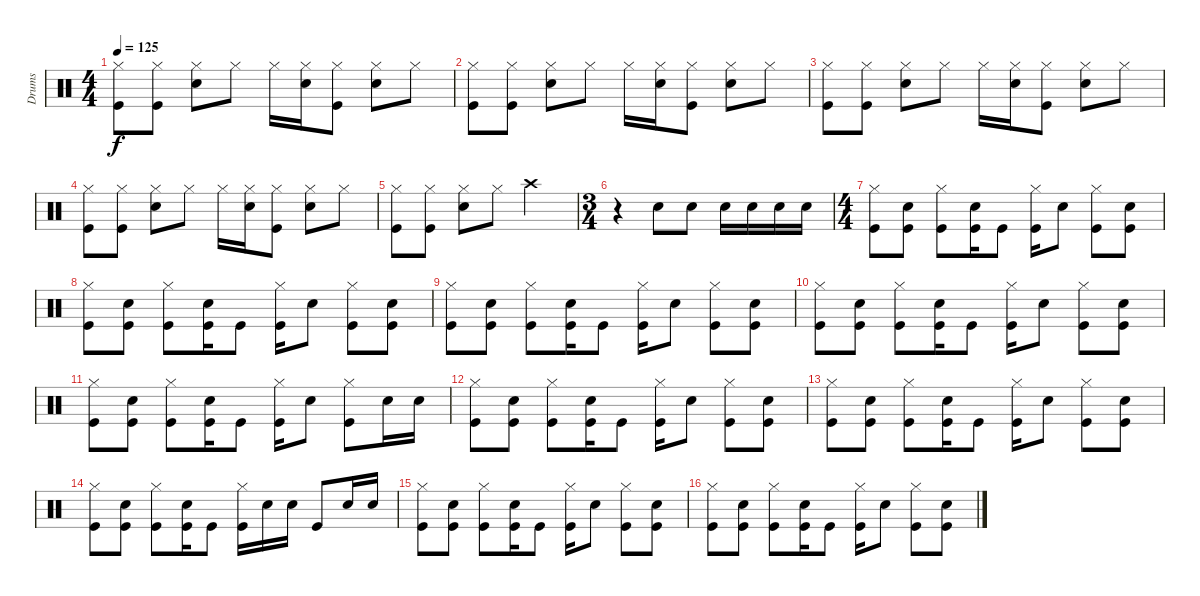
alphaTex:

\track ("Drums" "Drums") {instrument percussion}
\staff {score}
\articulation defaults
\ts (4 4)
\tempo 125
\clef neutral
\ks c
("Hi-Hat (closed)" "Kick (hit)").8{dy f} ("Hi-Hat (closed)" "Kick (hit)").8 ("Hi-Hat (closed)" "Snare (hit) 2").8 "Hi-Hat (closed)".8 "Hi-Hat (closed)".16 ("Hi-Hat (closed)" "Snare (hit) 2").16 ("Hi-Hat (closed)" "Kick (hit)").8 ("Hi-Hat (closed)" "Snare (hit) 2").8 "Hi-Hat (closed)".8 |
("Hi-Hat (closed)" "Kick (hit)").8 ("Hi-Hat (closed)" "Kick (hit)").8 ("Hi-Hat (closed)" "Snare (hit) 2").8 "Hi-Hat (closed)".8 "Hi-Hat (closed)".16 ("Hi-Hat (closed)" "Snare (hit) 2").16 ("Hi-Hat (closed)" "Kick (hit)").8 ("Hi-Hat (closed)" "Snare (hit) 2").8 "Hi-Hat (closed)".8 |
("Hi-Hat (closed)" "Kick (hit)").8 ("Hi-Hat (closed)" "Kick (hit)").8 ("Hi-Hat (closed)" "Snare (hit) 2").8 "Hi-Hat (closed)".8 "Hi-Hat (closed)".16 ("Hi-Hat (closed)" "Snare (hit) 2").16 ("Hi-Hat (closed)" "Kick (hit)").8 ("Hi-Hat (closed)" "Snare (hit) 2").8 "Hi-Hat (closed)".8 |
("Hi-Hat (closed)" "Kick (hit)").8 ("Hi-Hat (closed)" "Kick (hit)").8 ("Hi-Hat (closed)" "Snare (hit) 2").8 "Hi-Hat (closed)".8 "Hi-Hat (closed)".16 ("Hi-Hat (closed)" "Snare (hit) 2").16 ("Hi-Hat (closed)" "Kick (hit)").8 ("Hi-Hat (closed)" "Snare (hit) 2").8 "Hi-Hat (closed)".8 |
("Hi-Hat (closed)" "Kick (hit)").8 ("Hi-Hat (closed)" "Kick (hit)").8 ("Hi-Hat (closed)" "Snare (hit) 2").8 "Hi-Hat (closed)".8 "Crash high (hit)".2 |
\ts (3 4)
r.4 "Snare (hit) 2".8 "Snare (hit) 2".8 "Snare (hit) 2".16 "Snare (hit) 2".16 "Snare (hit) 2".16 "Snare (hit) 2".16 |
\ts (4 4)
("Hi-Hat (closed)" "Kick (hit)").8 ("Snare (hit) 2" "Kick (hit)").8 ("Hi-Hat (closed)" "Kick (hit)").8 ("Snare (hit) 2" "Kick (hit)").16 "Kick (hit)".8 ("Hi-Hat (closed)" "Kick (hit)").16 "Snare (hit) 2".8 ("Hi-Hat (closed)" "Kick (hit)").8 ("Snare (hit) 2" "Kick (hit)").8 |
("Hi-Hat (closed)" "Kick (hit)").8 ("Snare (hit) 2" "Kick (hit)").8 ("Hi-Hat (closed)" "Kick (hit)").8 ("Snare (hit) 2" "Kick (hit)").16 "Kick (hit)".8 ("Hi-Hat (closed)" "Kick (hit)").16 "Snare (hit) 2".8 ("Hi-Hat (closed)" "Kick (hit)").8 ("Snare (hit) 2" "Kick (hit)").8 |
("Hi-Hat (closed)" "Kick (hit)").8 ("Snare (hit) 2" "Kick (hit)").8 ("Hi-Hat (closed)" "Kick (hit)").8 ("Snare (hit) 2" "Kick (hit)").16 "Kick (hit)".8 ("Hi-Hat (closed)" "Kick (hit)").16 "Snare (hit) 2".8 ("Hi-Hat (closed)" "Kick (hit)").8 ("Snare (hit) 2" "Kick (hit)").8 |
("Hi-Hat (closed)" "Kick (hit)").8 ("Snare (hit) 2" "Kick (hit)").8 ("Hi-Hat (closed)" "Kick (hit)").8 ("Snare (hit) 2" "Kick (hit)").16 "Kick (hit)".8 ("Hi-Hat (closed)" "Kick (hit)").16 "Snare (hit) 2".8 ("Hi-Hat (closed)" "Kick (hit)").8 ("Snare (hit) 2" "Kick (hit)").8 |
("Hi-Hat (closed)" "Kick (hit)").8 ("Snare (hit) 2" "Kick (hit)").8 ("Hi-Hat (closed)" "Kick (hit)").8 ("Snare (hit) 2" "Kick (hit)").16 "Kick (hit)".8 ("Hi-Hat (closed)" "Kick (hit)").16 "Snare (hit) 2".8 ("Hi-Hat (closed)" "Kick (hit)").8 "Snare (hit) 2".16 "Snare (hit) 2".16 |
("Hi-Hat (closed)" "Kick (hit)").8 ("Snare (hit) 2" "Kick (hit)").8 ("Hi-Hat (closed)" "Kick (hit)").8 ("Snare (hit) 2" "Kick (hit)").16 "Kick (hit)".8 ("Hi-Hat (closed)" "Kick (hit)").16 "Snare (hit) 2".8 ("Hi-Hat (closed)" "Kick (hit)").8 ("Snare (hit) 2" "Kick (hit)").8 |
("Hi-Hat (closed)" "Kick (hit)").8 ("Snare (hit) 2" "Kick (hit)").8 ("Hi-Hat (closed)" "Kick (hit)").8 ("Snare (hit) 2" "Kick (hit)").16 "Kick (hit)".8 ("Hi-Hat (closed)" "Kick (hit)").16 "Snare (hit) 2".8 ("Hi-Hat (closed)" "Kick (hit)").8 ("Snare (hit) 2" "Kick (hit)").8 |
("Hi-Hat (closed)" "Kick (hit)").8 ("Snare (hit) 2" "Kick (hit)").8 ("Hi-Hat (closed)" "Kick (hit)").8 ("Snare (hit) 2" "Kick (hit)").16 "Kick (hit)".8 ("Hi-Hat (closed)" "Kick (hit)").16 "Snare (hit) 2".16 "Snare (hit) 2".16 "Kick (hit)".8 "Snare (hit) 2".16 "Snare (hit) 2".16 |
("Hi-Hat (closed)" "Kick (hit)").8 ("Snare (hit) 2" "Kick (hit)").8 ("Hi-Hat (closed)" "Kick (hit)").8 ("Snare (hit) 2" "Kick (hit)").16 "Kick (hit)".8 ("Hi-Hat (closed)" "Kick (hit)").16 "Snare (hit) 2".8 ("Hi-Hat (closed)" "Kick (hit)").8 ("Snare (hit) 2" "Kick (hit)").8 |
("Hi-Hat (closed)" "Kick (hit)").8 ("Snare (hit) 2" "Kick (hit)").8 ("Hi-Hat (closed)" "Kick (hit)").8 ("Snare (hit) 2" "Kick (hit)").16 "Kick (hit)".8 ("Hi-Hat (closed)" "Kick (hit)").16 "Snare (hit) 2".8 ("Hi-Hat (closed)" "Kick (hit)").8 ("Snare (hit) 2" "Kick (hit)").8
